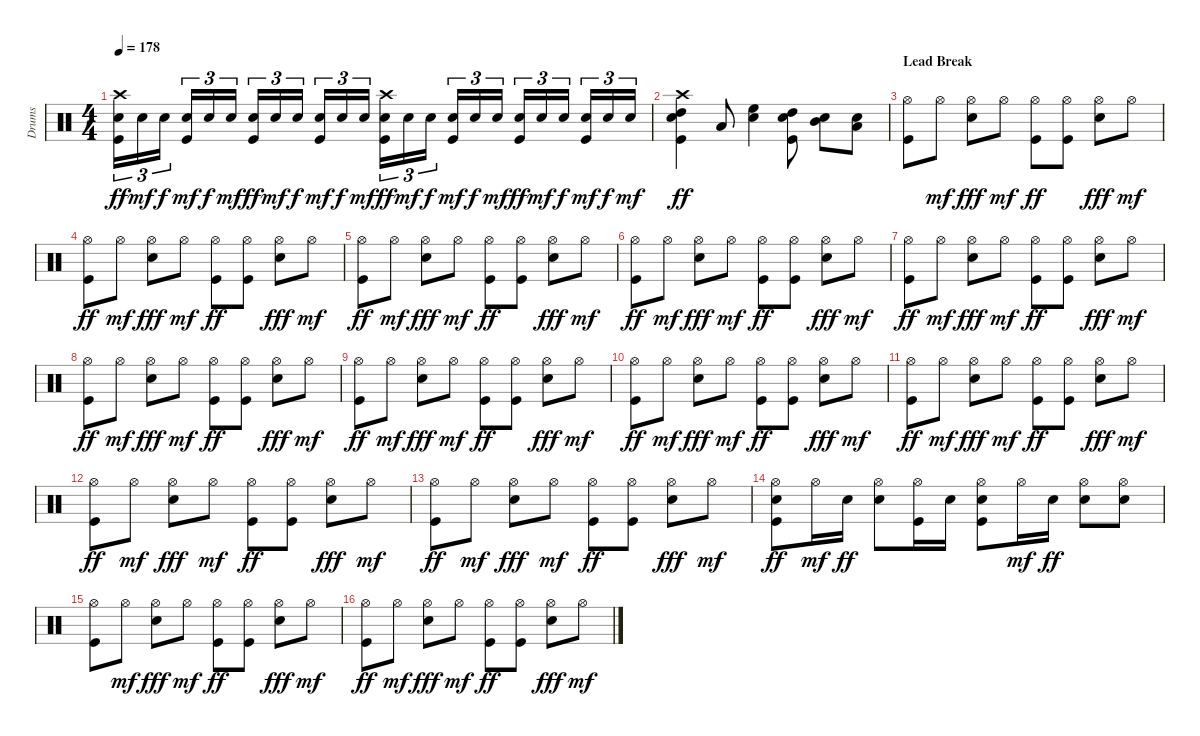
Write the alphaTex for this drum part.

\track ("Drums" "Drums") {instrument percussion}
\staff {score}
\articulation defaults
\ts (4 4)
\tempo 178
\clef neutral
\ks c
("Crash high (hit)" "Snare (hit) 2" "Kick (hit)").16{tu (3 2) dy ff} "Snare (hit) 2".16{tu (3 2) dy mf} "Snare (hit) 2".16{tu (3 2) dy f} ("Snare (hit) 2" "Kick (hit)").16{tu (3 2) dy mf} "Snare (hit) 2".16{tu (3 2) dy f} "Snare (hit) 2".16{tu (3 2) dy mf} ("Snare (hit) 2" "Kick (hit)").16{tu (3 2) dy ff} "Snare (hit) 2".16{tu (3 2) dy mf} "Snare (hit) 2".16{tu (3 2) dy f} ("Snare (hit) 2" "Kick (hit)").16{tu (3 2) dy mf} "Snare (hit) 2".16{tu (3 2) dy f} "Snare (hit) 2".16{tu (3 2) dy mf} ("Crash high (hit)" "Snare (hit) 2" "Kick (hit)").16{tu (3 2) dy ff} "Snare (hit) 2".16{tu (3 2) dy mf} "Snare (hit) 2".16{tu (3 2) dy f} ("Snare (hit) 2" "Kick (hit)").16{tu (3 2) dy mf} "Snare (hit) 2".16{tu (3 2) dy f} "Snare (hit) 2".16{tu (3 2) dy mf} ("Snare (hit) 2" "Kick (hit)").16{tu (3 2) dy ff} "Snare (hit) 2".16{tu (3 2) dy mf} "Snare (hit) 2".16{tu (3 2) dy f} ("Snare (hit) 2" "Kick (hit)").16{tu (3 2) dy mf} "Snare (hit) 2".16{tu (3 2) dy f} "Snare (hit) 2".16{tu (3 2) dy mf} |
("Crash high (hit)" "High Tom (hit)" "Snare (hit) 2" "Kick (hit)").4{dy ff} "Low Tom (hit)".8 ("High Floor Tom (hit)" "Snare (hit) 2").4 ("High Tom (hit)" "Snare (hit) 2" "Kick (hit)").8 ("Mid Tom (hit)" "Snare (hit) 2").8 ("Low Tom (hit)" "Snare (hit) 2").8 |
\section ("" "Lead Break")
("Hi-Hat (open)" "Kick (hit)").8 "Hi-Hat (open)".8{dy mf} ("Hi-Hat (open)" "Snare (hit) 2").8{dy fff} "Hi-Hat (open)".8{dy mf} ("Hi-Hat (open)" "Kick (hit)").8{dy ff} ("Hi-Hat (open)" "Kick (hit)").8 ("Hi-Hat (open)" "Snare (hit) 2").8{dy fff} "Hi-Hat (open)".8{dy mf} |
("Hi-Hat (open)" "Kick (hit)").8{dy ff} "Hi-Hat (open)".8{dy mf} ("Hi-Hat (open)" "Snare (hit) 2").8{dy fff} "Hi-Hat (open)".8{dy mf} ("Hi-Hat (open)" "Kick (hit)").8{dy ff} ("Hi-Hat (open)" "Kick (hit)").8 ("Hi-Hat (open)" "Snare (hit) 2").8{dy fff} "Hi-Hat (open)".8{dy mf} |
("Hi-Hat (open)" "Kick (hit)").8{dy ff} "Hi-Hat (open)".8{dy mf} ("Hi-Hat (open)" "Snare (hit) 2").8{dy fff} "Hi-Hat (open)".8{dy mf} ("Hi-Hat (open)" "Kick (hit)").8{dy ff} ("Hi-Hat (open)" "Kick (hit)").8 ("Hi-Hat (open)" "Snare (hit) 2").8{dy fff} "Hi-Hat (open)".8{dy mf} |
("Hi-Hat (open)" "Kick (hit)").8{dy ff} "Hi-Hat (open)".8{dy mf} ("Hi-Hat (open)" "Snare (hit) 2").8{dy fff} "Hi-Hat (open)".8{dy mf} ("Hi-Hat (open)" "Kick (hit)").8{dy ff} ("Hi-Hat (open)" "Kick (hit)").8 ("Hi-Hat (open)" "Snare (hit) 2").8{dy fff} "Hi-Hat (open)".8{dy mf} |
("Hi-Hat (open)" "Kick (hit)").8{dy ff} "Hi-Hat (open)".8{dy mf} ("Hi-Hat (open)" "Snare (hit) 2").8{dy fff} "Hi-Hat (open)".8{dy mf} ("Hi-Hat (open)" "Kick (hit)").8{dy ff} ("Hi-Hat (open)" "Kick (hit)").8 ("Hi-Hat (open)" "Snare (hit) 2").8{dy fff} "Hi-Hat (open)".8{dy mf} |
("Hi-Hat (open)" "Kick (hit)").8{dy ff} "Hi-Hat (open)".8{dy mf} ("Hi-Hat (open)" "Snare (hit) 2").8{dy fff} "Hi-Hat (open)".8{dy mf} ("Hi-Hat (open)" "Kick (hit)").8{dy ff} ("Hi-Hat (open)" "Kick (hit)").8 ("Hi-Hat (open)" "Snare (hit) 2").8{dy fff} "Hi-Hat (open)".8{dy mf} |
("Hi-Hat (open)" "Kick (hit)").8{dy ff} "Hi-Hat (open)".8{dy mf} ("Hi-Hat (open)" "Snare (hit) 2").8{dy fff} "Hi-Hat (open)".8{dy mf} ("Hi-Hat (open)" "Kick (hit)").8{dy ff} ("Hi-Hat (open)" "Kick (hit)").8 ("Hi-Hat (open)" "Snare (hit) 2").8{dy fff} "Hi-Hat (open)".8{dy mf} |
("Hi-Hat (open)" "Kick (hit)").8{dy ff} "Hi-Hat (open)".8{dy mf} ("Hi-Hat (open)" "Snare (hit) 2").8{dy fff} "Hi-Hat (open)".8{dy mf} ("Hi-Hat (open)" "Kick (hit)").8{dy ff} ("Hi-Hat (open)" "Kick (hit)").8 ("Hi-Hat (open)" "Snare (hit) 2").8{dy fff} "Hi-Hat (open)".8{dy mf} |
("Hi-Hat (open)" "Kick (hit)").8{dy ff} "Hi-Hat (open)".8{dy mf} ("Hi-Hat (open)" "Snare (hit) 2").8{dy fff} "Hi-Hat (open)".8{dy mf} ("Hi-Hat (open)" "Kick (hit)").8{dy ff} ("Hi-Hat (open)" "Kick (hit)").8 ("Hi-Hat (open)" "Snare (hit) 2").8{dy fff} "Hi-Hat (open)".8{dy mf} |
("Hi-Hat (open)" "Kick (hit)").8{dy ff} "Hi-Hat (open)".8{dy mf} ("Hi-Hat (open)" "Snare (hit) 2").8{dy fff} "Hi-Hat (open)".8{dy mf} ("Hi-Hat (open)" "Kick (hit)").8{dy ff} ("Hi-Hat (open)" "Kick (hit)").8 ("Hi-Hat (open)" "Snare (hit) 2").8{dy fff} "Hi-Hat (open)".8{dy mf} |
("Hi-Hat (open)" "Kick (hit)").8{dy ff} "Hi-Hat (open)".8{dy mf} ("Hi-Hat (open)" "Snare (hit) 2").8{dy fff} "Hi-Hat (open)".8{dy mf} ("Hi-Hat (open)" "Kick (hit)").8{dy ff} ("Hi-Hat (open)" "Kick (hit)").8 ("Hi-Hat (open)" "Snare (hit) 2").8{dy fff} "Hi-Hat (open)".8{dy mf} |
("Hi-Hat (open)" "Snare (hit) 2" "Kick (hit)").8{dy ff} "Hi-Hat (open)".16{dy mf} "Snare (hit) 2".16{dy ff} ("Hi-Hat (open)" "Snare (hit) 2").8 ("Hi-Hat (open)" "Kick (hit)").16 "Snare (hit) 2".16 ("Hi-Hat (open)" "Snare (hit) 2" "Kick (hit)").8 "Hi-Hat (open)".16{dy mf} "Snare (hit) 2".16{dy ff} ("Hi-Hat (open)" "Snare (hit) 2").8 ("Hi-Hat (open)" "Snare (hit) 2").8 |
("Hi-Hat (open)" "Kick (hit)").8 "Hi-Hat (open)".8{dy mf} ("Hi-Hat (open)" "Snare (hit) 2").8{dy fff} "Hi-Hat (open)".8{dy mf} ("Hi-Hat (open)" "Kick (hit)").8{dy ff} ("Hi-Hat (open)" "Kick (hit)").8 ("Hi-Hat (open)" "Snare (hit) 2").8{dy fff} "Hi-Hat (open)".8{dy mf} |
("Hi-Hat (open)" "Kick (hit)").8{dy ff} "Hi-Hat (open)".8{dy mf} ("Hi-Hat (open)" "Snare (hit) 2").8{dy fff} "Hi-Hat (open)".8{dy mf} ("Hi-Hat (open)" "Kick (hit)").8{dy ff} ("Hi-Hat (open)" "Kick (hit)").8 ("Hi-Hat (open)" "Snare (hit) 2").8{dy fff} "Hi-Hat (open)".8{dy mf}
